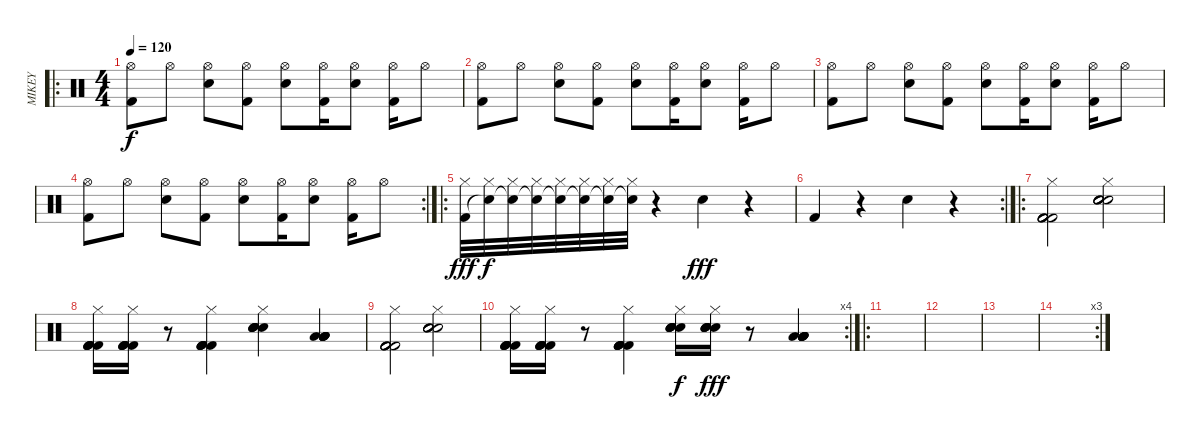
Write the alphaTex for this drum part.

\track ("MIKEY" "MIKEY") {instrument percussion}
\staff {score}
\articulation defaults
\ro
\ts (4 4)
\tempo 120
\clef neutral
\ks c
("Kick (hit) 2" "Hi-Hat (open)").8{dy f} "Hi-Hat (open)".8 ("Snare (hit) 2" "Hi-Hat (open)").8 ("Kick (hit) 2" "Hi-Hat (open)").8 ("Snare (hit) 2" "Hi-Hat (open)").8 ("Kick (hit) 2" "Hi-Hat (open)").16 ("Snare (hit) 2" "Hi-Hat (open)").8 ("Kick (hit) 2" "Hi-Hat (open)").16 "Hi-Hat (open)".8 |
("Kick (hit) 2" "Hi-Hat (open)").8 "Hi-Hat (open)".8 ("Snare (hit) 2" "Hi-Hat (open)").8 ("Kick (hit) 2" "Hi-Hat (open)").8 ("Snare (hit) 2" "Hi-Hat (open)").8 ("Kick (hit) 2" "Hi-Hat (open)").16 ("Snare (hit) 2" "Hi-Hat (open)").8 ("Kick (hit) 2" "Hi-Hat (open)").16 "Hi-Hat (open)".8 |
("Kick (hit) 2" "Hi-Hat (open)").8 "Hi-Hat (open)".8 ("Snare (hit) 2" "Hi-Hat (open)").8 ("Kick (hit) 2" "Hi-Hat (open)").8 ("Snare (hit) 2" "Hi-Hat (open)").8 ("Kick (hit) 2" "Hi-Hat (open)").16 ("Snare (hit) 2" "Hi-Hat (open)").8 ("Kick (hit) 2" "Hi-Hat (open)").16 "Hi-Hat (open)".8 |
\rc 2
("Kick (hit) 2" "Hi-Hat (open)").8 "Hi-Hat (open)".8 ("Snare (hit) 2" "Hi-Hat (open)").8 ("Kick (hit) 2" "Hi-Hat (open)").8 ("Snare (hit) 2" "Hi-Hat (open)").8 ("Kick (hit) 2" "Hi-Hat (open)").16 ("Snare (hit) 2" "Hi-Hat (open)").8 ("Kick (hit) 2" "Hi-Hat (open)").16 "Hi-Hat (open)".8 |
\ro
("Kick (hit) 2" "Hi-Hat (closed)").32{dy fff} ("Snare (hit)"{t} "Hi-Hat (closed)").32{dy f} ("Snare (hit)"{t} "Hi-Hat (closed)").32 ("Snare (hit)"{t} "Hi-Hat (closed)").32 ("Snare (hit)"{t} "Hi-Hat (closed)").32 ("Snare (hit)"{t} "Hi-Hat (closed)").32 ("Snare (hit)"{t} "Hi-Hat (closed)").32 ("Snare (hit)"{t} "Hi-Hat (closed)").32 r.4 "Snare (hit) 2".4{dy fff} r.4 |
\rc 2 "Kick (hit) 2".4
r.4 "Snare (hit) 2".4 r.4 |
\ro
("Hi-Hat (closed)" "Kick (hit) 2" "Kick (hit) 2" "Kick (hit) 2" "Kick (hit) 2" "Kick (hit) 2").2 ("Hi-Hat (closed)" "Snare (hit) 2" "Snare (hit) 2" "Snare (hit) 2" "Snare (hit) 2" "Snare (hit) 2").2 |
("Hi-Hat (closed)" "Kick (hit) 2" "Kick (hit) 2" "Kick (hit) 2" "Kick (hit) 2" "Kick (hit) 2").16 ("Hi-Hat (closed)" "Kick (hit) 2" "Kick (hit) 2" "Kick (hit) 2" "Kick (hit) 2" "Kick (hit) 2").16 r.8 ("Hi-Hat (closed)" "Kick (hit) 2" "Kick (hit) 2" "Kick (hit) 2" "Kick (hit) 2" "Kick (hit) 2").4 ("Hi-Hat (closed)" "Snare (hit) 2" "Snare (hit) 2" "Snare (hit) 2" "Snare (hit) 2" "Snare (hit) 2").4 ("Low Tom (hit)" "Low Tom (hit)" "Low Tom (hit)" "Low Tom (hit)" "Low Tom (hit)" "Low Tom (hit)").4 |
("Hi-Hat (closed)" "Kick (hit) 2" "Kick (hit) 2" "Kick (hit) 2" "Kick (hit) 2" "Kick (hit) 2").2 ("Hi-Hat (closed)" "Snare (hit) 2" "Snare (hit) 2" "Snare (hit) 2" "Snare (hit) 2" "Snare (hit) 2").2 |
\rc 4
("Hi-Hat (closed)" "Kick (hit) 2" "Kick (hit) 2" "Kick (hit) 2" "Kick (hit) 2" "Kick (hit) 2").16 ("Hi-Hat (closed)" "Kick (hit) 2" "Kick (hit) 2" "Kick (hit) 2" "Kick (hit) 2" "Kick (hit) 2").16 r.8 ("Hi-Hat (closed)" "Kick (hit) 2" "Kick (hit) 2" "Kick (hit) 2" "Kick (hit) 2" "Kick (hit) 2").4 ("Hi-Hat (closed)" "Snare (hit) 2" "Snare (hit) 2" "Snare (hit) 2" "Snare (hit) 2" "Snare (hit) 2").16{dy f} ("Hi-Hat (closed)" "Snare (hit) 2" "Snare (hit) 2" "Snare (hit) 2" "Snare (hit) 2" "Snare (hit) 2").16{dy fff} r.8 ("Low Tom (hit)" "Low Tom (hit)" "Low Tom (hit)" "Low Tom (hit)" "Low Tom (hit)" "Low Tom (hit)").4 |
\ro
|
|
|
\rc 3
